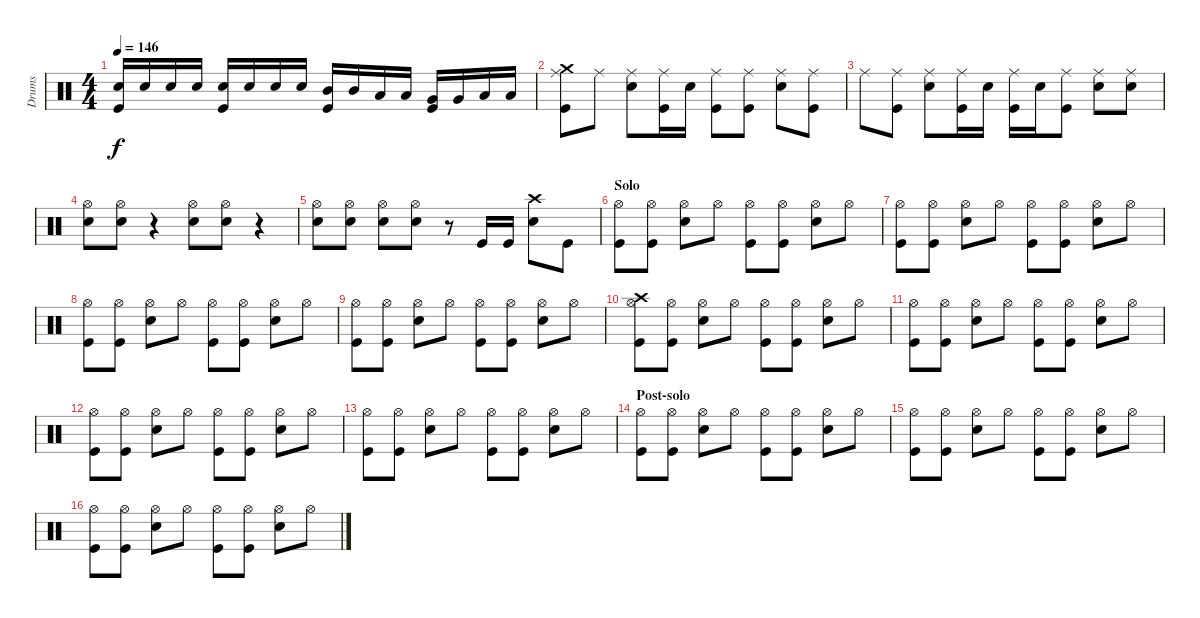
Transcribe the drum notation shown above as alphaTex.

\track ("Drums" "Drums") {instrument percussion}
\staff {score}
\articulation defaults
\ts (4 4)
\tempo 146
\clef neutral
\ks c
("Snare (hit) 2" "Kick (hit)").16{dy f} "Snare (hit) 2".16 "Snare (hit) 2".16 "Snare (hit) 2".16 ("Snare (hit) 2" "Kick (hit)").16 "Snare (hit) 2".16 "Snare (hit) 2".16 "Snare (hit) 2".16 ("Mid Tom (hit)" "Kick (hit)").16 "Mid Tom (hit)".16 "Low Tom (hit)".16 "Low Tom (hit)".16 ("Very Low Tom (hit)" "Kick (hit)").16 "Very Low Tom (hit)".16 "Low Floor Tom (hit)".16 "Low Floor Tom (hit)".16 |
("Ride (middle)" "Crash medium (hit)" "Kick (hit)").8 "Ride (middle)".8 ("Ride (middle)" "Snare (hit) 2").8 ("Ride (middle)" "Kick (hit)").16 "Snare (hit) 2".16 ("Ride (middle)" "Kick (hit)").8 ("Ride (middle)" "Kick (hit)").8 ("Ride (middle)" "Snare (hit) 2").8 ("Ride (middle)" "Kick (hit)").8 |
"Ride (middle)".8 ("Ride (middle)" "Kick (hit)").8 ("Ride (middle)" "Snare (hit) 2").8 ("Ride (middle)" "Kick (hit)").16 "Snare (hit) 2".16 ("Ride (middle)" "Kick (hit)").16 "Snare (hit) 2".16 ("Ride (middle)" "Kick (hit)").8 ("Ride (middle)" "Snare (hit) 2").8 ("Ride (middle)" "Snare (hit) 2").8 |
("Hi-Hat (open)" "Snare (hit) 2").8 ("Hi-Hat (open)" "Snare (hit) 2").8 r.4 ("Hi-Hat (open)" "Snare (hit) 2").8 ("Hi-Hat (open)" "Snare (hit) 2").8 r.4 |
("Hi-Hat (open)" "Snare (hit) 2").8 ("Hi-Hat (open)" "Snare (hit) 2").8 ("Hi-Hat (open)" "Snare (hit) 2").8 ("Hi-Hat (open)" "Snare (hit) 2").8 r.8 "Kick (hit)".16 "Kick (hit)".16 ("Crash high (hit)" "Snare (hit) 2").8 "Kick (hit)".8 |
\section ("" "Solo")
("Hi-Hat (open)" "Kick (hit)").8 ("Hi-Hat (open)" "Kick (hit)").8 ("Hi-Hat (open)" "Snare (hit) 2").8 "Hi-Hat (open)".8 ("Hi-Hat (open)" "Kick (hit)").8 ("Hi-Hat (open)" "Kick (hit)").8 ("Hi-Hat (open)" "Snare (hit) 2").8 "Hi-Hat (open)".8 |
("Hi-Hat (open)" "Kick (hit)").8 ("Hi-Hat (open)" "Kick (hit)").8 ("Hi-Hat (open)" "Snare (hit) 2").8 "Hi-Hat (open)".8 ("Hi-Hat (open)" "Kick (hit)").8 ("Hi-Hat (open)" "Kick (hit)").8 ("Hi-Hat (open)" "Snare (hit) 2").8 "Hi-Hat (open)".8 |
("Hi-Hat (open)" "Kick (hit)").8 ("Hi-Hat (open)" "Kick (hit)").8 ("Hi-Hat (open)" "Snare (hit) 2").8 "Hi-Hat (open)".8 ("Hi-Hat (open)" "Kick (hit)").8 ("Hi-Hat (open)" "Kick (hit)").8 ("Hi-Hat (open)" "Snare (hit) 2").8 "Hi-Hat (open)".8 |
("Hi-Hat (open)" "Kick (hit)").8 ("Hi-Hat (open)" "Kick (hit)").8 ("Hi-Hat (open)" "Snare (hit) 2").8 "Hi-Hat (open)".8 ("Hi-Hat (open)" "Kick (hit)").8 ("Hi-Hat (open)" "Kick (hit)").8 ("Hi-Hat (open)" "Snare (hit) 2").8 "Hi-Hat (open)".8 |
("Hi-Hat (open)" "Crash high (hit)" "Kick (hit)").8 ("Hi-Hat (open)" "Kick (hit)").8 ("Hi-Hat (open)" "Snare (hit) 2").8 "Hi-Hat (open)".8 ("Hi-Hat (open)" "Kick (hit)").8 ("Hi-Hat (open)" "Kick (hit)").8 ("Hi-Hat (open)" "Snare (hit) 2").8 "Hi-Hat (open)".8 |
("Hi-Hat (open)" "Kick (hit)").8 ("Hi-Hat (open)" "Kick (hit)").8 ("Hi-Hat (open)" "Snare (hit) 2").8 "Hi-Hat (open)".8 ("Hi-Hat (open)" "Kick (hit)").8 ("Hi-Hat (open)" "Kick (hit)").8 ("Hi-Hat (open)" "Snare (hit) 2").8 "Hi-Hat (open)".8 |
("Hi-Hat (open)" "Kick (hit)").8 ("Hi-Hat (open)" "Kick (hit)").8 ("Hi-Hat (open)" "Snare (hit) 2").8 "Hi-Hat (open)".8 ("Hi-Hat (open)" "Kick (hit)").8 ("Hi-Hat (open)" "Kick (hit)").8 ("Hi-Hat (open)" "Snare (hit) 2").8 "Hi-Hat (open)".8 |
("Hi-Hat (open)" "Kick (hit)").8 ("Hi-Hat (open)" "Kick (hit)").8 ("Hi-Hat (open)" "Snare (hit) 2").8 "Hi-Hat (open)".8 ("Hi-Hat (open)" "Kick (hit)").8 ("Hi-Hat (open)" "Kick (hit)").8 ("Hi-Hat (open)" "Snare (hit) 2").8 "Hi-Hat (open)".8 |
\section ("" "Post-solo")
("Hi-Hat (open)" "Kick (hit)").8 ("Hi-Hat (open)" "Kick (hit)").8 ("Hi-Hat (open)" "Snare (hit) 2").8 "Hi-Hat (open)".8 ("Hi-Hat (open)" "Kick (hit)").8 ("Hi-Hat (open)" "Kick (hit)").8 ("Hi-Hat (open)" "Snare (hit) 2").8 "Hi-Hat (open)".8 |
("Hi-Hat (open)" "Kick (hit)").8 ("Hi-Hat (open)" "Kick (hit)").8 ("Hi-Hat (open)" "Snare (hit) 2").8 "Hi-Hat (open)".8 ("Hi-Hat (open)" "Kick (hit)").8 ("Hi-Hat (open)" "Kick (hit)").8 ("Hi-Hat (open)" "Snare (hit) 2").8 "Hi-Hat (open)".8 |
("Hi-Hat (open)" "Kick (hit)").8 ("Hi-Hat (open)" "Kick (hit)").8 ("Hi-Hat (open)" "Snare (hit) 2").8 "Hi-Hat (open)".8 ("Hi-Hat (open)" "Kick (hit)").8 ("Hi-Hat (open)" "Kick (hit)").8 ("Hi-Hat (open)" "Snare (hit) 2").8 "Hi-Hat (open)".8
